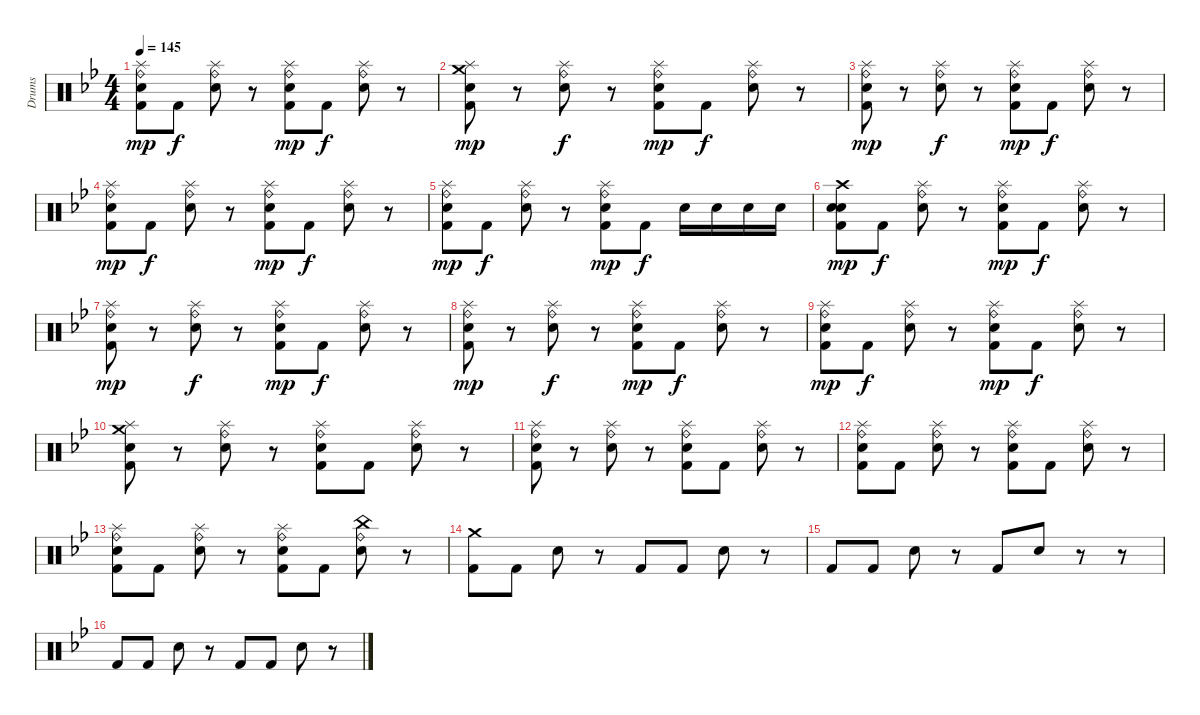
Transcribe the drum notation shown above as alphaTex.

\track ("Drums" "Drums") {instrument percussion}
\staff {score}
\articulation defaults
\ts (4 4)
\tempo 145
\clef neutral
\ks bb
("Ride (bell)" "Splash (hit)" "Electric Snare (hit)" "Kick (hit) 2").8{dy mp} "Kick (hit) 2".8{dy f} ("Ride (bell)" "Splash (hit)" "Electric Snare (hit)").8 r.8 ("Ride (bell)" "Splash (hit)" "Electric Snare (hit)" "Kick (hit) 2").8{dy mp} "Kick (hit) 2".8{dy f} ("Ride (bell)" "Splash (hit)" "Electric Snare (hit)").8 r.8 |
("Crash medium (hit)" "Splash (hit)" "Electric Snare (hit)" "Kick (hit) 2").8{dy mp} r.8 ("Ride (bell)" "Splash (hit)" "Electric Snare (hit)").8{dy f} r.8 ("Ride (bell)" "Splash (hit)" "Electric Snare (hit)" "Kick (hit) 2").8{dy mp} "Kick (hit) 2".8{dy f} ("Ride (bell)" "Splash (hit)" "Electric Snare (hit)").8 r.8 |
("Ride (bell)" "Splash (hit)" "Electric Snare (hit)" "Kick (hit) 2").8{dy mp} r.8 ("Ride (bell)" "Splash (hit)" "Electric Snare (hit)").8{dy f} r.8 ("Ride (bell)" "Splash (hit)" "Electric Snare (hit)" "Kick (hit) 2").8{dy mp} "Kick (hit) 2".8{dy f} ("Ride (bell)" "Splash (hit)" "Electric Snare (hit)").8 r.8 |
("Ride (bell)" "Splash (hit)" "Electric Snare (hit)" "Kick (hit) 2").8{dy mp} "Kick (hit) 2".8{dy f} ("Ride (bell)" "Splash (hit)" "Electric Snare (hit)").8 r.8 ("Ride (bell)" "Splash (hit)" "Electric Snare (hit)" "Kick (hit) 2").8{dy mp} "Kick (hit) 2".8{dy f} ("Ride (bell)" "Splash (hit)" "Electric Snare (hit)").8 r.8 |
("Ride (bell)" "Splash (hit)" "Electric Snare (hit)" "Kick (hit) 2").8{dy mp} "Kick (hit) 2".8{dy f} ("Ride (bell)" "Splash (hit)" "Electric Snare (hit)").8 r.8 ("Ride (bell)" "Splash (hit)" "Electric Snare (hit)" "Kick (hit) 2").8{dy mp} "Kick (hit) 2".8{dy f} "Electric Snare (hit)".16 "Electric Snare (hit)".16 "Electric Snare (hit)".16 "Electric Snare (hit)".16 |
("Crash high (hit)" "Electric Snare (hit)" "Electric Snare (hit)" "Kick (hit) 2").8{dy mp} "Kick (hit) 2".8{dy f} ("Ride (bell)" "Splash (hit)" "Electric Snare (hit)").8 r.8 ("Ride (bell)" "Splash (hit)" "Electric Snare (hit)" "Kick (hit) 2").8{dy mp} "Kick (hit) 2".8{dy f} ("Ride (bell)" "Splash (hit)" "Electric Snare (hit)").8 r.8 |
("Ride (bell)" "Splash (hit)" "Electric Snare (hit)" "Kick (hit) 2").8{dy mp} r.8 ("Ride (bell)" "Splash (hit)" "Electric Snare (hit)").8{dy f} r.8 ("Ride (bell)" "Splash (hit)" "Electric Snare (hit)" "Kick (hit) 2").8{dy mp} "Kick (hit) 2".8{dy f} ("Ride (bell)" "Splash (hit)" "Electric Snare (hit)").8 r.8 |
("Ride (bell)" "Splash (hit)" "Electric Snare (hit)" "Kick (hit) 2").8{dy mp} r.8 ("Ride (bell)" "Splash (hit)" "Electric Snare (hit)").8{dy f} r.8 ("Ride (bell)" "Splash (hit)" "Electric Snare (hit)" "Kick (hit) 2").8{dy mp} "Kick (hit) 2".8{dy f} ("Ride (bell)" "Splash (hit)" "Electric Snare (hit)").8 r.8 |
("Ride (bell)" "Splash (hit)" "Electric Snare (hit)" "Kick (hit) 2").8{dy mp} "Kick (hit) 2".8{dy f} ("Ride (bell)" "Splash (hit)" "Electric Snare (hit)").8 r.8 ("Ride (bell)" "Splash (hit)" "Electric Snare (hit)" "Kick (hit) 2").8{dy mp} "Kick (hit) 2".8{dy f} ("Ride (bell)" "Splash (hit)" "Electric Snare (hit)").8 r.8 |
("Crash medium (hit)" "Splash (hit)" "Electric Snare (hit)" "Kick (hit) 2").8 r.8 ("Ride (bell)" "Splash (hit)" "Electric Snare (hit)").8 r.8 ("Ride (bell)" "Splash (hit)" "Electric Snare (hit)" "Kick (hit) 2").8 "Kick (hit) 2".8 ("Ride (bell)" "Splash (hit)" "Electric Snare (hit)").8 r.8 |
("Ride (bell)" "Splash (hit)" "Electric Snare (hit)" "Kick (hit) 2").8 r.8 ("Ride (bell)" "Splash (hit)" "Electric Snare (hit)").8 r.8 ("Ride (bell)" "Splash (hit)" "Electric Snare (hit)" "Kick (hit) 2").8 "Kick (hit) 2".8 ("Ride (bell)" "Splash (hit)" "Electric Snare (hit)").8 r.8 |
("Ride (bell)" "Splash (hit)" "Electric Snare (hit)" "Kick (hit) 2").8 "Kick (hit) 2".8 ("Ride (bell)" "Splash (hit)" "Electric Snare (hit)").8 r.8 ("Ride (bell)" "Splash (hit)" "Electric Snare (hit)" "Kick (hit) 2").8 "Kick (hit) 2".8 ("Ride (bell)" "Splash (hit)" "Electric Snare (hit)").8 r.8 |
("Ride (bell)" "Splash (hit)" "Electric Snare (hit)" "Kick (hit) 2").8 "Kick (hit) 2".8 ("Ride (bell)" "Splash (hit)" "Electric Snare (hit)").8 r.8 ("Ride (bell)" "Splash (hit)" "Electric Snare (hit)" "Kick (hit) 2").8 "Kick (hit) 2".8 ("Ride (bell)" "China (hit)" "Electric Snare (hit)").8 r.8 |
("Crash medium (hit)" "Kick (hit) 2").8 "Kick (hit) 2".8 "Electric Snare (hit)".8 r.8 "Kick (hit) 2".8 "Kick (hit) 2".8 "Electric Snare (hit)".8 r.8 |
"Kick (hit) 2".8 "Kick (hit) 2".8 "Electric Snare (hit)".8 r.8 "Kick (hit) 2".8 "Electric Snare (hit)".8 r.8 r.8 |
"Kick (hit) 2".8 "Kick (hit) 2".8 "Electric Snare (hit)".8 r.8 "Kick (hit) 2".8 "Kick (hit) 2".8 "Electric Snare (hit)".8 r.8
